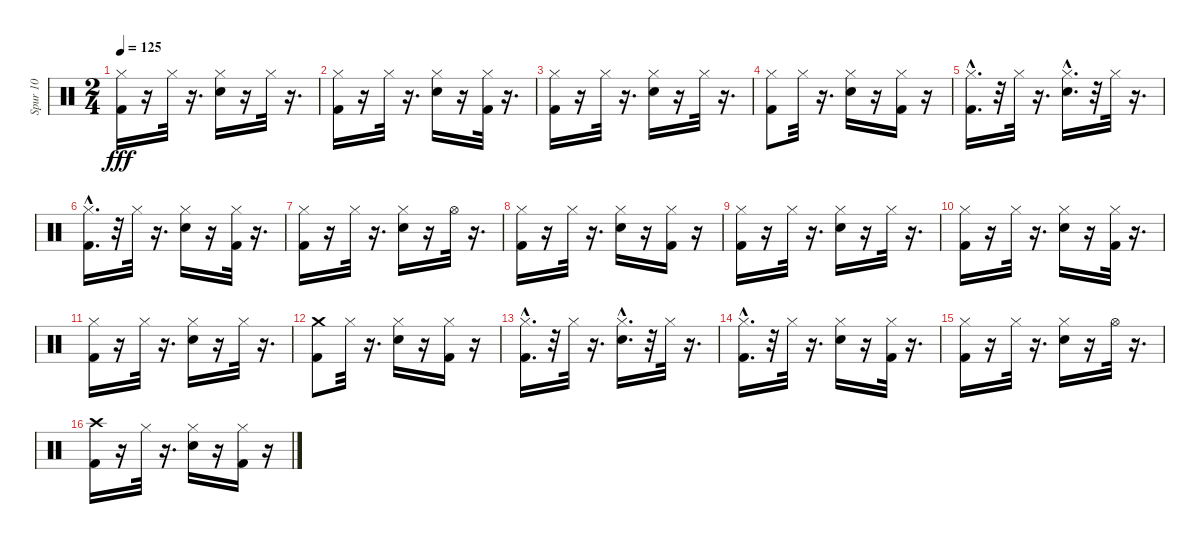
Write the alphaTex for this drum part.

\track ("Spur 10" "Spur 10") {instrument percussion}
\staff {score}
\articulation defaults
\ts (2 4)
\tempo 125
\clef neutral
\ks c
("Kick (hit) 2" "Hi-Hat (closed)").16{dy fff} r.16 "Hi-Hat (closed)".32 r.16{d} ("Snare (hit) 2" "Hi-Hat (closed)").16 r.16 "Hi-Hat (closed)".32 r.16{d} |
("Kick (hit) 2" "Hi-Hat (closed)").16 r.16 "Hi-Hat (closed)".32 r.16{d} ("Snare (hit) 2" "Hi-Hat (closed)").16 r.16 ("Kick (hit) 2" "Hi-Hat (closed)").32 r.16{d} |
("Kick (hit) 2" "Hi-Hat (closed)").16 r.16 "Hi-Hat (closed)".32 r.16{d} ("Snare (hit) 2" "Hi-Hat (closed)").16 r.16 "Hi-Hat (closed)".32 r.16{d} |
("Kick (hit) 2" "Hi-Hat (closed)").8 "Hi-Hat (closed)".32 r.16{d} ("Snare (hit) 2" "Hi-Hat (closed)").16 r.16 ("Kick (hit) 2" "Hi-Hat (closed)").16 r.16 |
("Kick (hit) 2"{hac} "Hi-Hat (closed)").16{d} r.32 "Hi-Hat (closed)".32 r.16{d} ("Snare (hit) 2"{hac} "Hi-Hat (closed)").16{d} r.32 "Hi-Hat (closed)".32 r.16{d} |
("Kick (hit) 2"{hac} "Hi-Hat (closed)").16{d} r.32 "Hi-Hat (closed)".32 r.16{d} ("Snare (hit) 2" "Hi-Hat (closed)").16 r.16 ("Kick (hit) 2" "Hi-Hat (closed)").32 r.16{d} |
("Kick (hit) 2" "Hi-Hat (closed)").16 r.16 "Hi-Hat (closed)".32 r.16{d} ("Snare (hit) 2" "Hi-Hat (closed)").16 r.16 "Hi-Hat (open)".32 r.16{d} |
("Kick (hit) 2" "Hi-Hat (closed)").16 r.16 "Hi-Hat (closed)".32 r.16{d} ("Snare (hit) 2" "Hi-Hat (closed)").16 r.16 ("Kick (hit) 2" "Hi-Hat (closed)").16 r.16 |
("Kick (hit) 2" "Hi-Hat (closed)").16 r.16 "Hi-Hat (closed)".32 r.16{d} ("Snare (hit) 2" "Hi-Hat (closed)").16 r.16 "Hi-Hat (closed)".32 r.16{d} |
("Kick (hit) 2" "Hi-Hat (closed)").16 r.16 "Hi-Hat (closed)".32 r.16{d} ("Snare (hit) 2" "Hi-Hat (closed)").16 r.16 ("Kick (hit) 2" "Hi-Hat (closed)").32 r.16{d} |
("Kick (hit) 2" "Hi-Hat (closed)").16 r.16 "Hi-Hat (closed)".32 r.16{d} ("Snare (hit) 2" "Hi-Hat (closed)").16 r.16 "Hi-Hat (closed)".32 r.16{d} |
("Kick (hit) 2" "Crash medium (hit)").8 "Hi-Hat (closed)".32 r.16{d} ("Snare (hit) 2" "Hi-Hat (closed)").16 r.16 ("Kick (hit) 2" "Hi-Hat (closed)").16 r.16 |
("Kick (hit) 2"{hac} "Hi-Hat (closed)").16{d} r.32 "Hi-Hat (closed)".32 r.16{d} ("Snare (hit) 2"{hac} "Hi-Hat (closed)").16{d} r.32 "Hi-Hat (closed)".32 r.16{d} |
("Kick (hit) 2"{hac} "Hi-Hat (closed)").16{d} r.32 "Hi-Hat (closed)".32 r.16{d} ("Snare (hit) 2" "Hi-Hat (closed)").16 r.16 ("Kick (hit) 2" "Hi-Hat (closed)").32 r.16{d} |
("Kick (hit) 2" "Hi-Hat (closed)").16 r.16 "Hi-Hat (closed)".32 r.16{d} ("Snare (hit) 2" "Hi-Hat (closed)").16 r.16 "Hi-Hat (open)".32 r.16{d} |
("Kick (hit) 2" "Crash high (hit)").16 r.16 "Hi-Hat (closed)".32 r.16{d} ("Snare (hit) 2" "Hi-Hat (closed)").16 r.16 ("Kick (hit) 2" "Hi-Hat (closed)").16 r.16
